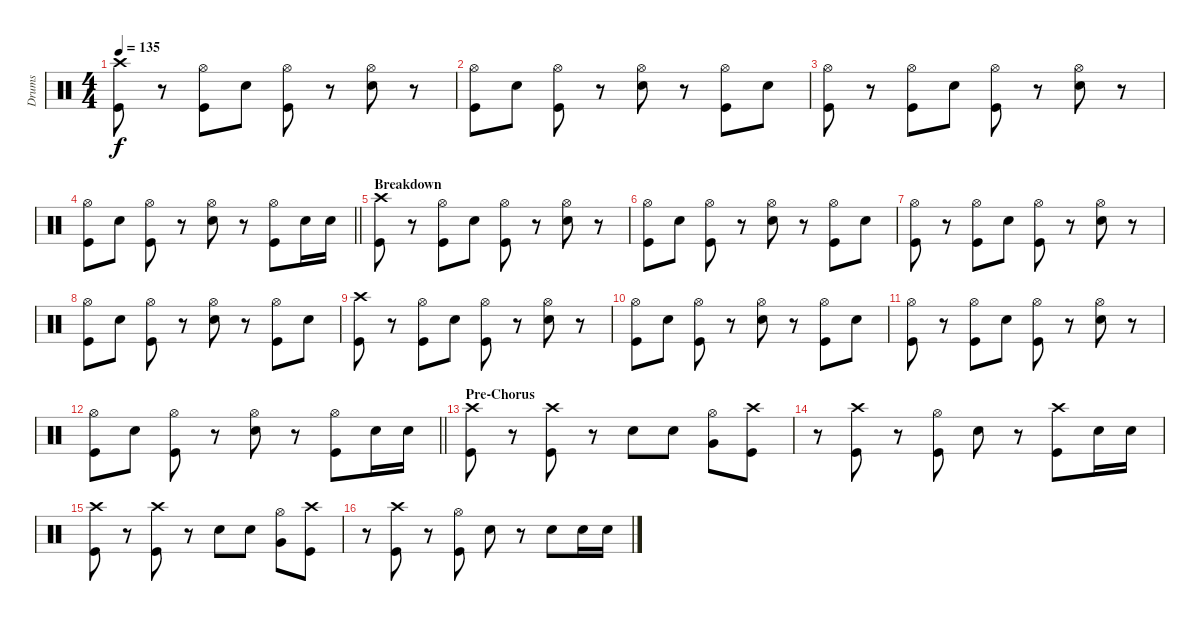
\track ("Drums" "Drums") {instrument percussion}
\staff {score}
\articulation defaults
\ts (4 4)
\tempo 135
\clef neutral
\ks c
("Crash high (hit)" "Kick (hit)").8{dy f} r.8 ("Hi-Hat (open)" "Kick (hit)").8 "Electric Snare (hit)".8 ("Hi-Hat (open)" "Kick (hit)").8 r.8 ("Hi-Hat (open)" "Electric Snare (hit)").8 r.8 |
("Hi-Hat (open)" "Kick (hit)").8 "Electric Snare (hit)".8 ("Hi-Hat (open)" "Kick (hit)").8 r.8 ("Hi-Hat (open)" "Electric Snare (hit)").8 r.8 ("Hi-Hat (open)" "Kick (hit)").8 "Electric Snare (hit)".8 |
("Hi-Hat (open)" "Kick (hit)").8 r.8 ("Hi-Hat (open)" "Kick (hit)").8 "Electric Snare (hit)".8 ("Hi-Hat (open)" "Kick (hit)").8 r.8 ("Hi-Hat (open)" "Electric Snare (hit)").8 r.8 |
\barLineRight lightlight
("Hi-Hat (open)" "Kick (hit)").8 "Electric Snare (hit)".8 ("Hi-Hat (open)" "Kick (hit)").8 r.8 ("Hi-Hat (open)" "Electric Snare (hit)").8 r.8 ("Hi-Hat (open)" "Kick (hit)").8 "Electric Snare (hit)".16 "Electric Snare (hit)".16 |
\section ("" "Breakdown")
("Crash high (hit)" "Kick (hit)").8 r.8 ("Hi-Hat (open)" "Kick (hit)").8 "Electric Snare (hit)".8 ("Hi-Hat (open)" "Kick (hit)").8 r.8 ("Hi-Hat (open)" "Electric Snare (hit)").8 r.8 |
("Hi-Hat (open)" "Kick (hit)").8 "Electric Snare (hit)".8 ("Hi-Hat (open)" "Kick (hit)").8 r.8 ("Hi-Hat (open)" "Electric Snare (hit)").8 r.8 ("Hi-Hat (open)" "Kick (hit)").8 "Electric Snare (hit)".8 |
("Hi-Hat (open)" "Kick (hit)").8 r.8 ("Hi-Hat (open)" "Kick (hit)").8 "Electric Snare (hit)".8 ("Hi-Hat (open)" "Kick (hit)").8 r.8 ("Hi-Hat (open)" "Electric Snare (hit)").8 r.8 |
("Hi-Hat (open)" "Kick (hit)").8 "Electric Snare (hit)".8 ("Hi-Hat (open)" "Kick (hit)").8 r.8 ("Hi-Hat (open)" "Electric Snare (hit)").8 r.8 ("Hi-Hat (open)" "Kick (hit)").8 "Electric Snare (hit)".8 |
("Crash high (hit)" "Kick (hit)").8 r.8 ("Hi-Hat (open)" "Kick (hit)").8 "Electric Snare (hit)".8 ("Hi-Hat (open)" "Kick (hit)").8 r.8 ("Hi-Hat (open)" "Electric Snare (hit)").8 r.8 |
("Hi-Hat (open)" "Kick (hit)").8 "Electric Snare (hit)".8 ("Hi-Hat (open)" "Kick (hit)").8 r.8 ("Hi-Hat (open)" "Electric Snare (hit)").8 r.8 ("Hi-Hat (open)" "Kick (hit)").8 "Electric Snare (hit)".8 |
("Hi-Hat (open)" "Kick (hit)").8 r.8 ("Hi-Hat (open)" "Kick (hit)").8 "Electric Snare (hit)".8 ("Hi-Hat (open)" "Kick (hit)").8 r.8 ("Hi-Hat (open)" "Electric Snare (hit)").8 r.8 |
\barLineRight lightlight
("Hi-Hat (open)" "Kick (hit)").8 "Electric Snare (hit)".8 ("Hi-Hat (open)" "Kick (hit)").8 r.8 ("Hi-Hat (open)" "Electric Snare (hit)").8 r.8 ("Hi-Hat (open)" "Kick (hit)").8 "Electric Snare (hit)".16 "Electric Snare (hit)".16 |
\section ("" "Pre-Chorus")
("Crash high (hit)" "Kick (hit)").8 r.8 ("Crash high (hit)" "Kick (hit)").8 r.8 "Electric Snare (hit)".8 "Electric Snare (hit)".8 ("Hi-Hat (open)" "Very Low Tom (hit)").8 ("Crash high (hit)" "Kick (hit)").8 |
r.8 ("Crash high (hit)" "Kick (hit)").8 r.8 ("Hi-Hat (open)" "Kick (hit)").8 "Electric Snare (hit)".8 r.8 ("Crash high (hit)" "Kick (hit)").8 "Electric Snare (hit)".16 "Electric Snare (hit)".16 |
("Crash high (hit)" "Kick (hit)").8 r.8 ("Crash high (hit)" "Kick (hit)").8 r.8 "Electric Snare (hit)".8 "Electric Snare (hit)".8 ("Hi-Hat (open)" "Very Low Tom (hit)").8 ("Crash high (hit)" "Kick (hit)").8 |
r.8 ("Crash high (hit)" "Kick (hit)").8 r.8 ("Hi-Hat (open)" "Kick (hit)").8 "Electric Snare (hit)".8 r.8 "Electric Snare (hit)".8 "Electric Snare (hit)".16 "Electric Snare (hit)".16
